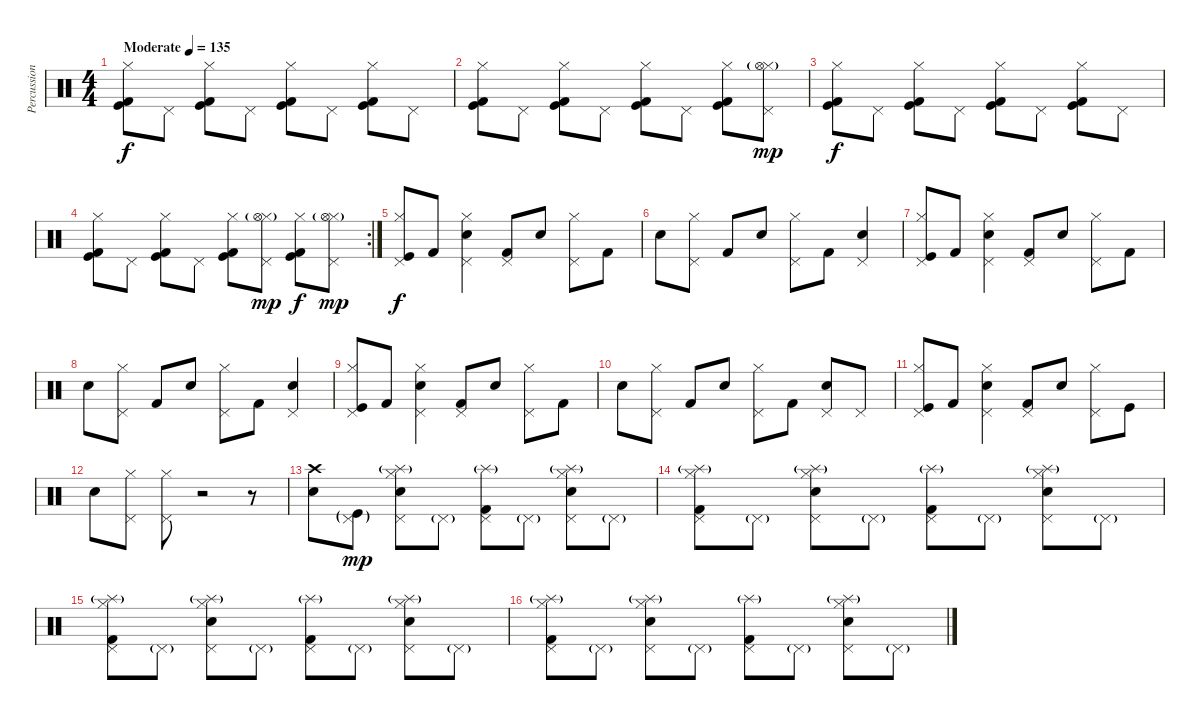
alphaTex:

\track ("Percussion" "Percussion") {instrument percussion}
\staff {score}
\articulation defaults
\ts (4 4)
\tempo (135 "Moderate")
\clef neutral
\ks c
("Kick (hit)" "Kick (hit) 2" "Hi-Hat (closed)").8{dy f} "Pedal Hi-Hat (hit)".8 ("Kick (hit)" "Kick (hit) 2" "Hi-Hat (closed)").8 "Pedal Hi-Hat (hit)".8 ("Kick (hit)" "Kick (hit) 2" "Hi-Hat (closed)").8 "Pedal Hi-Hat (hit)".8 ("Kick (hit)" "Kick (hit) 2" "Hi-Hat (closed)").8 "Pedal Hi-Hat (hit)".8 |
("Kick (hit)" "Kick (hit) 2" "Hi-Hat (closed)").8 "Pedal Hi-Hat (hit)".8 ("Kick (hit)" "Kick (hit) 2" "Hi-Hat (closed)").8 "Pedal Hi-Hat (hit)".8 ("Kick (hit)" "Kick (hit) 2" "Hi-Hat (closed)").8 "Pedal Hi-Hat (hit)".8 ("Kick (hit)" "Kick (hit) 2" "Hi-Hat (closed)").8 ("Pedal Hi-Hat (hit)" "Hi-Hat (closed)" "Hi-Hat (open)"{g}).8{dy mp} |
("Kick (hit)" "Kick (hit) 2" "Hi-Hat (closed)").8{dy f} "Pedal Hi-Hat (hit)".8 ("Kick (hit)" "Kick (hit) 2" "Hi-Hat (closed)").8 "Pedal Hi-Hat (hit)".8 ("Kick (hit)" "Kick (hit) 2" "Hi-Hat (closed)").8 "Pedal Hi-Hat (hit)".8 ("Kick (hit)" "Kick (hit) 2" "Hi-Hat (closed)").8 "Pedal Hi-Hat (hit)".8 |
\rc 2
("Kick (hit)" "Kick (hit) 2" "Hi-Hat (closed)").8 "Pedal Hi-Hat (hit)".8 ("Kick (hit)" "Kick (hit) 2" "Hi-Hat (closed)").8 "Pedal Hi-Hat (hit)".8 ("Kick (hit)" "Kick (hit) 2" "Hi-Hat (closed)").8 ("Pedal Hi-Hat (hit)" "Hi-Hat (closed)" "Hi-Hat (open)"{g}).8{dy mp} ("Kick (hit)" "Kick (hit) 2" "Hi-Hat (closed)").8{dy f} ("Pedal Hi-Hat (hit)" "Hi-Hat (closed)" "Hi-Hat (open)"{g}).8{dy mp} |
("Kick (hit)" "Pedal Hi-Hat (hit)" "Hi-Hat (closed)").8{dy f} "Kick (hit) 2".8 ("Electric Snare (hit)" "Pedal Hi-Hat (hit)" "Hi-Hat (closed)").4 ("Kick (hit) 2" "Pedal Hi-Hat (hit)").8 "Electric Snare (hit)".8 ("Pedal Hi-Hat (hit)" "Hi-Hat (closed)").8 "Kick (hit) 2".8 |
"Electric Snare (hit)".8 ("Pedal Hi-Hat (hit)" "Hi-Hat (closed)").8 "Kick (hit) 2".8 "Electric Snare (hit)".8 ("Pedal Hi-Hat (hit)" "Hi-Hat (closed)").8 "Kick (hit) 2".8 ("Electric Snare (hit)" "Pedal Hi-Hat (hit)").4 |
("Kick (hit)" "Pedal Hi-Hat (hit)" "Hi-Hat (closed)").8 "Kick (hit) 2".8 ("Electric Snare (hit)" "Pedal Hi-Hat (hit)" "Hi-Hat (closed)").4 ("Kick (hit) 2" "Pedal Hi-Hat (hit)").8 "Electric Snare (hit)".8 ("Pedal Hi-Hat (hit)" "Hi-Hat (closed)").8 "Kick (hit) 2".8 |
"Electric Snare (hit)".8 ("Pedal Hi-Hat (hit)" "Hi-Hat (closed)").8 "Kick (hit) 2".8 "Electric Snare (hit)".8 ("Pedal Hi-Hat (hit)" "Hi-Hat (closed)").8 "Kick (hit) 2".8 ("Electric Snare (hit)" "Pedal Hi-Hat (hit)").4 |
("Kick (hit)" "Pedal Hi-Hat (hit)" "Hi-Hat (closed)").8 "Kick (hit) 2".8 ("Electric Snare (hit)" "Pedal Hi-Hat (hit)" "Hi-Hat (closed)").4 ("Kick (hit) 2" "Pedal Hi-Hat (hit)").8 "Electric Snare (hit)".8 ("Pedal Hi-Hat (hit)" "Hi-Hat (closed)").8 "Kick (hit) 2".8 |
"Electric Snare (hit)".8 ("Pedal Hi-Hat (hit)" "Hi-Hat (closed)").8 "Kick (hit) 2".8 "Electric Snare (hit)".8 ("Pedal Hi-Hat (hit)" "Hi-Hat (closed)").8 "Kick (hit) 2".8 ("Electric Snare (hit)" "Pedal Hi-Hat (hit)").8 "Pedal Hi-Hat (hit)".8 |
("Kick (hit)" "Pedal Hi-Hat (hit)" "Hi-Hat (closed)").8 "Kick (hit) 2".8 ("Electric Snare (hit)" "Pedal Hi-Hat (hit)" "Hi-Hat (closed)").4 ("Kick (hit) 2" "Pedal Hi-Hat (hit)").8 "Electric Snare (hit)".8 ("Pedal Hi-Hat (hit)" "Hi-Hat (closed)").8 "Kick (hit)".8 |
"Electric Snare (hit)".8 ("Pedal Hi-Hat (hit)" "Hi-Hat (closed)").8 ("Pedal Hi-Hat (hit)" "Hi-Hat (closed)").8 r.2 r.8 |
("Crash high (hit)" "Electric Snare (hit)").8 ("Pedal Hi-Hat (hit)"{g} "Kick (hit)"{g}).8{dy mp} ("Pedal Hi-Hat (hit)" "Hi-Hat (closed)" "Electric Snare (hit)" "Splash (hit)"{g}).8 "Pedal Hi-Hat (hit)"{g}.8 ("Pedal Hi-Hat (hit)" "Kick (hit) 2" "Splash (hit)"{g}).8 "Pedal Hi-Hat (hit)"{g}.8 ("Pedal Hi-Hat (hit)" "Hi-Hat (closed)" "Electric Snare (hit)" "Splash (hit)"{g}).8 "Pedal Hi-Hat (hit)"{g}.8 |
("Pedal Hi-Hat (hit)" "Hi-Hat (closed)" "Kick (hit) 2" "Splash (hit)"{g}).8 "Pedal Hi-Hat (hit)"{g}.8 ("Pedal Hi-Hat (hit)" "Hi-Hat (closed)" "Electric Snare (hit)" "Splash (hit)"{g}).8 "Pedal Hi-Hat (hit)"{g}.8 ("Pedal Hi-Hat (hit)" "Kick (hit) 2" "Splash (hit)"{g}).8 "Pedal Hi-Hat (hit)"{g}.8 ("Pedal Hi-Hat (hit)" "Hi-Hat (closed)" "Electric Snare (hit)" "Splash (hit)"{g}).8 "Pedal Hi-Hat (hit)"{g}.8 |
("Pedal Hi-Hat (hit)" "Hi-Hat (closed)" "Kick (hit) 2" "Splash (hit)"{g}).8 "Pedal Hi-Hat (hit)"{g}.8 ("Pedal Hi-Hat (hit)" "Hi-Hat (closed)" "Electric Snare (hit)" "Splash (hit)"{g}).8 "Pedal Hi-Hat (hit)"{g}.8 ("Pedal Hi-Hat (hit)" "Kick (hit) 2" "Splash (hit)"{g}).8 "Pedal Hi-Hat (hit)"{g}.8 ("Pedal Hi-Hat (hit)" "Hi-Hat (closed)" "Electric Snare (hit)" "Splash (hit)"{g}).8 "Pedal Hi-Hat (hit)"{g}.8 |
("Pedal Hi-Hat (hit)" "Hi-Hat (closed)" "Kick (hit) 2" "Splash (hit)"{g}).8 "Pedal Hi-Hat (hit)"{g}.8 ("Pedal Hi-Hat (hit)" "Hi-Hat (closed)" "Electric Snare (hit)" "Splash (hit)"{g}).8 "Pedal Hi-Hat (hit)"{g}.8 ("Pedal Hi-Hat (hit)" "Kick (hit) 2" "Splash (hit)"{g}).8 "Pedal Hi-Hat (hit)"{g}.8 ("Pedal Hi-Hat (hit)" "Hi-Hat (closed)" "Electric Snare (hit)" "Splash (hit)"{g}).8 "Pedal Hi-Hat (hit)"{g}.8
